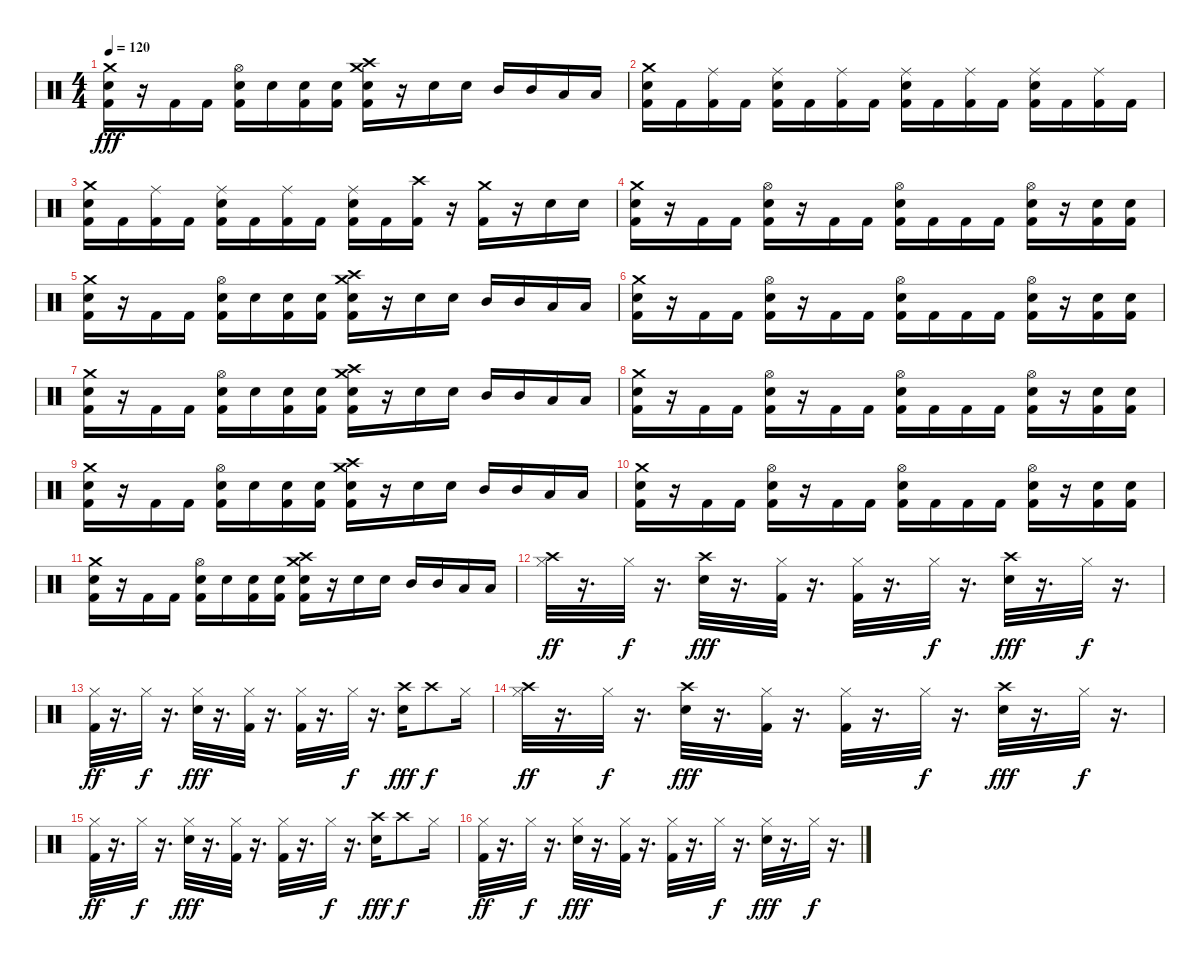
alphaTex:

\track "" {instrument percussion}
\staff {score}
\articulation defaults
\ts (4 4)
\tempo 120
\clef neutral
\ks c
("Crash medium (hit)" "Snare (hit) 2" "Kick (hit) 2").16{dy fff} r.16 "Kick (hit) 2".16 "Kick (hit) 2".16 ("Hi-Hat (open)" "Snare (hit) 2" "Kick (hit) 2").16 "Snare (hit) 2".16 ("Snare (hit) 2" "Kick (hit) 2").16 ("Snare (hit) 2" "Kick (hit) 2").16 ("Crash medium (hit)" "Crash high (hit)" "Snare (hit) 2" "Kick (hit) 2").16 r.16 "Snare (hit) 2".16 "Snare (hit) 2".16 "Mid Tom (hit)".16 "Mid Tom (hit)".16 "Low Tom (hit)".16 "Low Tom (hit)".16 |
("Crash medium (hit)" "Snare (hit) 2" "Kick (hit) 2").16 "Kick (hit) 2".16 ("Ride (middle)" "Kick (hit) 2").16 "Kick (hit) 2".16 ("Ride (middle)" "Snare (hit) 2" "Kick (hit) 2").16 "Kick (hit) 2".16 ("Ride (middle)" "Kick (hit) 2").16 "Kick (hit) 2".16 ("Ride (middle)" "Snare (hit) 2" "Kick (hit) 2").16 "Kick (hit) 2".16 ("Ride (middle)" "Kick (hit) 2").16 "Kick (hit) 2".16 ("Ride (middle)" "Snare (hit) 2" "Kick (hit) 2").16 "Kick (hit) 2".16 ("Ride (middle)" "Kick (hit) 2").16 "Kick (hit) 2".16 |
("Crash medium (hit)" "Snare (hit) 2" "Kick (hit) 2").16 "Kick (hit) 2".16 ("Ride (middle)" "Kick (hit) 2").16 "Kick (hit) 2".16 ("Ride (middle)" "Snare (hit) 2" "Kick (hit) 2").16 "Kick (hit) 2".16 ("Ride (middle)" "Kick (hit) 2").16 "Kick (hit) 2".16 ("Ride (middle)" "Snare (hit) 2" "Kick (hit) 2").16 "Kick (hit) 2".16 ("Crash high (hit)" "Kick (hit) 2").16 r.16 ("Crash medium (hit)" "Kick (hit) 2").16 r.16 "Snare (hit) 2".16 "Snare (hit) 2".16 |
("Crash medium (hit)" "Snare (hit) 2" "Kick (hit) 2").16 r.16 "Kick (hit) 2".16 "Kick (hit) 2".16 ("Hi-Hat (open)" "Snare (hit) 2" "Kick (hit) 2").16 r.16 "Kick (hit) 2".16 "Kick (hit) 2".16 ("Hi-Hat (open)" "Snare (hit) 2" "Kick (hit) 2").16 "Kick (hit) 2".16 "Kick (hit) 2".16 "Kick (hit) 2".16 ("Hi-Hat (open)" "Snare (hit) 2" "Kick (hit) 2").16 r.16 ("Snare (hit) 2" "Kick (hit) 2").16 ("Snare (hit) 2" "Kick (hit) 2").16 |
("Crash medium (hit)" "Snare (hit) 2" "Kick (hit) 2").16 r.16 "Kick (hit) 2".16 "Kick (hit) 2".16 ("Hi-Hat (open)" "Snare (hit) 2" "Kick (hit) 2").16 "Snare (hit) 2".16 ("Snare (hit) 2" "Kick (hit) 2").16 ("Snare (hit) 2" "Kick (hit) 2").16 ("Crash medium (hit)" "Crash high (hit)" "Snare (hit) 2" "Kick (hit) 2").16 r.16 "Snare (hit) 2".16 "Snare (hit) 2".16 "Mid Tom (hit)".16 "Mid Tom (hit)".16 "Low Tom (hit)".16 "Low Tom (hit)".16 |
("Crash medium (hit)" "Snare (hit) 2" "Kick (hit) 2").16 r.16 "Kick (hit) 2".16 "Kick (hit) 2".16 ("Hi-Hat (open)" "Snare (hit) 2" "Kick (hit) 2").16 r.16 "Kick (hit) 2".16 "Kick (hit) 2".16 ("Hi-Hat (open)" "Snare (hit) 2" "Kick (hit) 2").16 "Kick (hit) 2".16 "Kick (hit) 2".16 "Kick (hit) 2".16 ("Hi-Hat (open)" "Snare (hit) 2" "Kick (hit) 2").16 r.16 ("Snare (hit) 2" "Kick (hit) 2").16 ("Snare (hit) 2" "Kick (hit) 2").16 |
("Crash medium (hit)" "Snare (hit) 2" "Kick (hit) 2").16 r.16 "Kick (hit) 2".16 "Kick (hit) 2".16 ("Hi-Hat (open)" "Snare (hit) 2" "Kick (hit) 2").16 "Snare (hit) 2".16 ("Snare (hit) 2" "Kick (hit) 2").16 ("Snare (hit) 2" "Kick (hit) 2").16 ("Crash medium (hit)" "Crash high (hit)" "Snare (hit) 2" "Kick (hit) 2").16 r.16 "Snare (hit) 2".16 "Snare (hit) 2".16 "Mid Tom (hit)".16 "Mid Tom (hit)".16 "Low Tom (hit)".16 "Low Tom (hit)".16 |
("Crash medium (hit)" "Snare (hit) 2" "Kick (hit) 2").16 r.16 "Kick (hit) 2".16 "Kick (hit) 2".16 ("Hi-Hat (open)" "Snare (hit) 2" "Kick (hit) 2").16 r.16 "Kick (hit) 2".16 "Kick (hit) 2".16 ("Hi-Hat (open)" "Snare (hit) 2" "Kick (hit) 2").16 "Kick (hit) 2".16 "Kick (hit) 2".16 "Kick (hit) 2".16 ("Hi-Hat (open)" "Snare (hit) 2" "Kick (hit) 2").16 r.16 ("Snare (hit) 2" "Kick (hit) 2").16 ("Snare (hit) 2" "Kick (hit) 2").16 |
("Crash medium (hit)" "Snare (hit) 2" "Kick (hit) 2").16 r.16 "Kick (hit) 2".16 "Kick (hit) 2".16 ("Hi-Hat (open)" "Snare (hit) 2" "Kick (hit) 2").16 "Snare (hit) 2".16 ("Snare (hit) 2" "Kick (hit) 2").16 ("Snare (hit) 2" "Kick (hit) 2").16 ("Crash medium (hit)" "Crash high (hit)" "Snare (hit) 2" "Kick (hit) 2").16 r.16 "Snare (hit) 2".16 "Snare (hit) 2".16 "Mid Tom (hit)".16 "Mid Tom (hit)".16 "Low Tom (hit)".16 "Low Tom (hit)".16 |
("Crash medium (hit)" "Snare (hit) 2" "Kick (hit) 2").16 r.16 "Kick (hit) 2".16 "Kick (hit) 2".16 ("Hi-Hat (open)" "Snare (hit) 2" "Kick (hit) 2").16 r.16 "Kick (hit) 2".16 "Kick (hit) 2".16 ("Hi-Hat (open)" "Snare (hit) 2" "Kick (hit) 2").16 "Kick (hit) 2".16 "Kick (hit) 2".16 "Kick (hit) 2".16 ("Hi-Hat (open)" "Snare (hit) 2" "Kick (hit) 2").16 r.16 ("Snare (hit) 2" "Kick (hit) 2").16 ("Snare (hit) 2" "Kick (hit) 2").16 |
("Crash medium (hit)" "Snare (hit) 2" "Kick (hit) 2").16 r.16 "Kick (hit) 2".16 "Kick (hit) 2".16 ("Hi-Hat (open)" "Snare (hit) 2" "Kick (hit) 2").16 "Snare (hit) 2".16 ("Snare (hit) 2" "Kick (hit) 2").16 ("Snare (hit) 2" "Kick (hit) 2").16 ("Crash medium (hit)" "Crash high (hit)" "Snare (hit) 2" "Kick (hit) 2").16 r.16 "Snare (hit) 2".16 "Snare (hit) 2".16 "Mid Tom (hit)".16 "Mid Tom (hit)".16 "Low Tom (hit)".16 "Low Tom (hit)".16 |
("Crash high (hit)" "Hi-Hat (closed)").32{dy ff} r.16{d} "Hi-Hat (closed)".32{dy f} r.16{d} ("Crash high (hit)" "Electric Snare (hit)").32{dy fff} r.16{d} ("Kick (hit) 2" "Hi-Hat (closed)").32 r.16{d} ("Kick (hit) 2" "Hi-Hat (closed)").32 r.16{d} "Hi-Hat (closed)".32{dy f} r.16{d} ("Crash high (hit)" "Electric Snare (hit)").32{dy fff} r.16{d} "Hi-Hat (closed)".32{dy f} r.16{d} |
("Kick (hit) 2" "Hi-Hat (closed)").32{dy ff} r.16{d} "Hi-Hat (closed)".32{dy f} r.16{d} ("Hi-Hat (closed)" "Electric Snare (hit)").32{dy fff} r.16{d} ("Kick (hit) 2" "Hi-Hat (closed)").32 r.16{d} ("Kick (hit) 2" "Hi-Hat (closed)").32 r.16{d} "Hi-Hat (closed)".32{dy f} r.16{d} ("Crash high (hit)" "Electric Snare (hit)").16{dy fff} "Crash high (hit)".8{dy f} "Hi-Hat (closed)".16 |
("Crash high (hit)" "Hi-Hat (closed)").32{dy ff} r.16{d} "Hi-Hat (closed)".32{dy f} r.16{d} ("Crash high (hit)" "Electric Snare (hit)").32{dy fff} r.16{d} ("Kick (hit) 2" "Hi-Hat (closed)").32 r.16{d} ("Kick (hit) 2" "Hi-Hat (closed)").32 r.16{d} "Hi-Hat (closed)".32{dy f} r.16{d} ("Crash high (hit)" "Electric Snare (hit)").32{dy fff} r.16{d} "Hi-Hat (closed)".32{dy f} r.16{d} |
("Kick (hit) 2" "Hi-Hat (closed)").32{dy ff} r.16{d} "Hi-Hat (closed)".32{dy f} r.16{d} ("Hi-Hat (closed)" "Electric Snare (hit)").32{dy fff} r.16{d} ("Kick (hit) 2" "Hi-Hat (closed)").32 r.16{d} ("Kick (hit) 2" "Hi-Hat (closed)").32 r.16{d} "Hi-Hat (closed)".32{dy f} r.16{d} ("Crash high (hit)" "Electric Snare (hit)").16{dy fff} "Crash high (hit)".8{dy f} "Hi-Hat (closed)".16 |
("Kick (hit) 2" "Hi-Hat (closed)").32{dy ff} r.16{d} "Hi-Hat (closed)".32{dy f} r.16{d} ("Hi-Hat (closed)" "Electric Snare (hit)").32{dy fff} r.16{d} ("Kick (hit) 2" "Hi-Hat (closed)").32 r.16{d} ("Kick (hit) 2" "Hi-Hat (closed)").32 r.16{d} "Hi-Hat (closed)".32{dy f} r.16{d} ("Hi-Hat (closed)" "Electric Snare (hit)").32{dy fff} r.16{d} "Hi-Hat (closed)".32{dy f} r.16{d}
